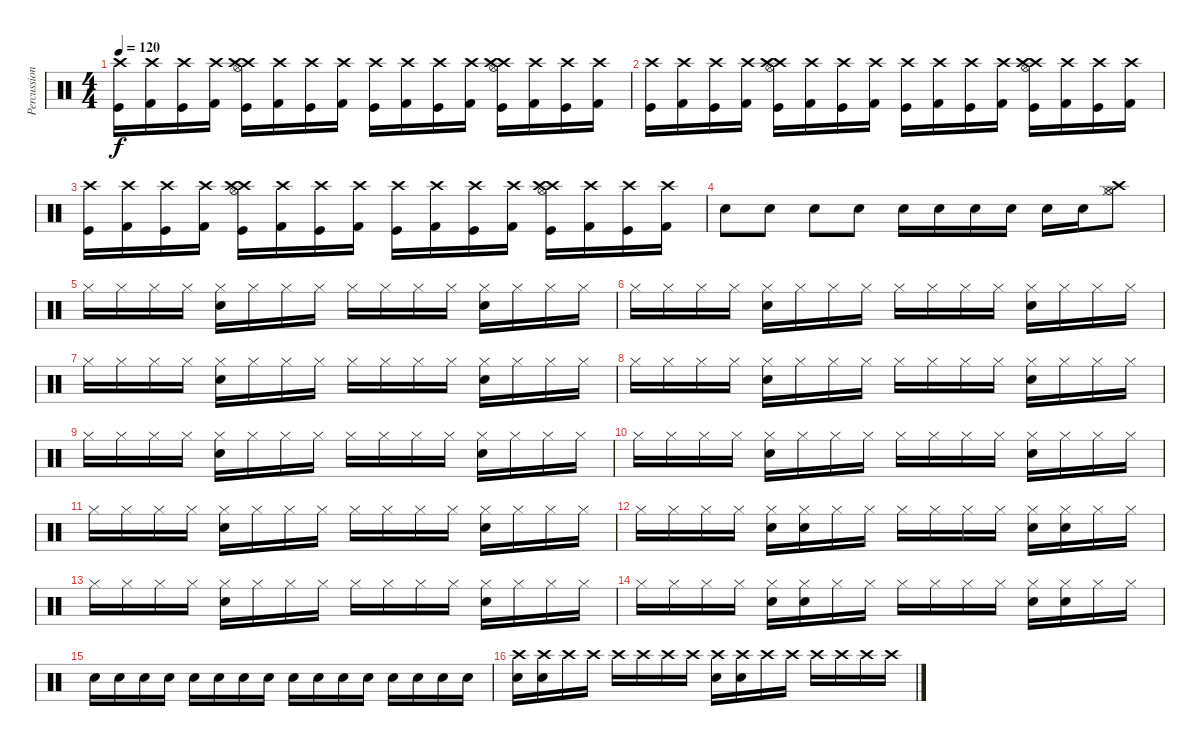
\track ("Percussion" "Percussion") {instrument percussion}
\staff {score}
\articulation defaults
\ts (4 4)
\tempo 120
\clef neutral
\ks c
("Kick (hit)" "Crash high (hit)").16{dy f} ("Kick (hit) 2" "Crash high (hit)").16 ("Kick (hit)" "Crash high (hit)").16 ("Kick (hit) 2" "Crash high (hit)").16 ("Kick (hit)" "Crash high (hit)" "Crash high (hit)" "Hi-Hat (open)").16 ("Kick (hit) 2" "Crash high (hit)").16 ("Kick (hit)" "Crash high (hit)").16 ("Kick (hit) 2" "Crash high (hit)").16 ("Kick (hit)" "Crash high (hit)").16 ("Kick (hit) 2" "Crash high (hit)").16 ("Kick (hit)" "Crash high (hit)").16 ("Kick (hit) 2" "Crash high (hit)").16 ("Kick (hit)" "Crash high (hit)" "Crash high (hit)" "Hi-Hat (open)").16 ("Kick (hit) 2" "Crash high (hit)").16 ("Kick (hit)" "Crash high (hit)").16 ("Kick (hit) 2" "Crash high (hit)").16 |
("Kick (hit)" "Crash high (hit)").16 ("Kick (hit) 2" "Crash high (hit)").16 ("Kick (hit)" "Crash high (hit)").16 ("Kick (hit) 2" "Crash high (hit)").16 ("Kick (hit)" "Crash high (hit)" "Crash high (hit)" "Hi-Hat (open)").16 ("Kick (hit) 2" "Crash high (hit)").16 ("Kick (hit)" "Crash high (hit)").16 ("Kick (hit) 2" "Crash high (hit)").16 ("Kick (hit)" "Crash high (hit)").16 ("Kick (hit) 2" "Crash high (hit)").16 ("Kick (hit)" "Crash high (hit)").16 ("Kick (hit) 2" "Crash high (hit)").16 ("Kick (hit)" "Crash high (hit)" "Crash high (hit)" "Hi-Hat (open)").16 ("Kick (hit) 2" "Crash high (hit)").16 ("Kick (hit)" "Crash high (hit)").16 ("Kick (hit) 2" "Crash high (hit)").16 |
("Kick (hit)" "Crash high (hit)").16 ("Kick (hit) 2" "Crash high (hit)").16 ("Kick (hit)" "Crash high (hit)").16 ("Kick (hit) 2" "Crash high (hit)").16 ("Kick (hit)" "Crash high (hit)" "Crash high (hit)" "Hi-Hat (open)").16 ("Kick (hit) 2" "Crash high (hit)").16 ("Kick (hit)" "Crash high (hit)").16 ("Kick (hit) 2" "Crash high (hit)").16 ("Kick (hit)" "Crash high (hit)").16 ("Kick (hit) 2" "Crash high (hit)").16 ("Kick (hit)" "Crash high (hit)").16 ("Kick (hit) 2" "Crash high (hit)").16 ("Kick (hit)" "Crash high (hit)" "Crash high (hit)" "Hi-Hat (open)").16 ("Kick (hit) 2" "Crash high (hit)").16 ("Kick (hit)" "Crash high (hit)").16 ("Kick (hit) 2" "Crash high (hit)").16 |
"Electric Snare (hit)".8 "Electric Snare (hit)".8 "Electric Snare (hit)".8 "Electric Snare (hit)".8 "Electric Snare (hit)".16 "Electric Snare (hit)".16 "Electric Snare (hit)".16 "Electric Snare (hit)".16 "Electric Snare (hit)".16 "Electric Snare (hit)".16 ("Crash high (hit)" "Hi-Hat (open)" "Hi-Hat (closed)").8 |
"Hi-Hat (closed)".16 "Hi-Hat (closed)".16 "Hi-Hat (closed)".16 "Hi-Hat (closed)".16 ("Hi-Hat (closed)" "Electric Snare (hit)").16 "Hi-Hat (closed)".16 "Hi-Hat (closed)".16 "Hi-Hat (closed)".16 "Hi-Hat (closed)".16 "Hi-Hat (closed)".16 "Hi-Hat (closed)".16 "Hi-Hat (closed)".16 ("Hi-Hat (closed)" "Electric Snare (hit)").16 "Hi-Hat (closed)".16 "Hi-Hat (closed)".16 "Hi-Hat (closed)".16 |
"Hi-Hat (closed)".16 "Hi-Hat (closed)".16 "Hi-Hat (closed)".16 "Hi-Hat (closed)".16 ("Hi-Hat (closed)" "Electric Snare (hit)").16 "Hi-Hat (closed)".16 "Hi-Hat (closed)".16 "Hi-Hat (closed)".16 "Hi-Hat (closed)".16 "Hi-Hat (closed)".16 "Hi-Hat (closed)".16 "Hi-Hat (closed)".16 ("Hi-Hat (closed)" "Electric Snare (hit)").16 "Hi-Hat (closed)".16 "Hi-Hat (closed)".16 "Hi-Hat (closed)".16 |
"Hi-Hat (closed)".16 "Hi-Hat (closed)".16 "Hi-Hat (closed)".16 "Hi-Hat (closed)".16 ("Hi-Hat (closed)" "Electric Snare (hit)").16 "Hi-Hat (closed)".16 "Hi-Hat (closed)".16 "Hi-Hat (closed)".16 "Hi-Hat (closed)".16 "Hi-Hat (closed)".16 "Hi-Hat (closed)".16 "Hi-Hat (closed)".16 ("Hi-Hat (closed)" "Electric Snare (hit)").16 "Hi-Hat (closed)".16 "Hi-Hat (closed)".16 "Hi-Hat (closed)".16 |
"Hi-Hat (closed)".16 "Hi-Hat (closed)".16 "Hi-Hat (closed)".16 "Hi-Hat (closed)".16 ("Hi-Hat (closed)" "Electric Snare (hit)").16 "Hi-Hat (closed)".16 "Hi-Hat (closed)".16 "Hi-Hat (closed)".16 "Hi-Hat (closed)".16 "Hi-Hat (closed)".16 "Hi-Hat (closed)".16 "Hi-Hat (closed)".16 ("Hi-Hat (closed)" "Electric Snare (hit)").16 "Hi-Hat (closed)".16 "Hi-Hat (closed)".16 "Hi-Hat (closed)".16 |
"Hi-Hat (closed)".16 "Hi-Hat (closed)".16 "Hi-Hat (closed)".16 "Hi-Hat (closed)".16 ("Hi-Hat (closed)" "Electric Snare (hit)").16 "Hi-Hat (closed)".16 "Hi-Hat (closed)".16 "Hi-Hat (closed)".16 "Hi-Hat (closed)".16 "Hi-Hat (closed)".16 "Hi-Hat (closed)".16 "Hi-Hat (closed)".16 ("Hi-Hat (closed)" "Electric Snare (hit)").16 "Hi-Hat (closed)".16 "Hi-Hat (closed)".16 "Hi-Hat (closed)".16 |
"Hi-Hat (closed)".16 "Hi-Hat (closed)".16 "Hi-Hat (closed)".16 "Hi-Hat (closed)".16 ("Hi-Hat (closed)" "Electric Snare (hit)").16 "Hi-Hat (closed)".16 "Hi-Hat (closed)".16 "Hi-Hat (closed)".16 "Hi-Hat (closed)".16 "Hi-Hat (closed)".16 "Hi-Hat (closed)".16 "Hi-Hat (closed)".16 ("Hi-Hat (closed)" "Electric Snare (hit)").16 "Hi-Hat (closed)".16 "Hi-Hat (closed)".16 "Hi-Hat (closed)".16 |
"Hi-Hat (closed)".16 "Hi-Hat (closed)".16 "Hi-Hat (closed)".16 "Hi-Hat (closed)".16 ("Hi-Hat (closed)" "Electric Snare (hit)").16 "Hi-Hat (closed)".16 "Hi-Hat (closed)".16 "Hi-Hat (closed)".16 "Hi-Hat (closed)".16 "Hi-Hat (closed)".16 "Hi-Hat (closed)".16 "Hi-Hat (closed)".16 ("Hi-Hat (closed)" "Electric Snare (hit)").16 "Hi-Hat (closed)".16 "Hi-Hat (closed)".16 "Hi-Hat (closed)".16 |
"Hi-Hat (closed)".16 "Hi-Hat (closed)".16 "Hi-Hat (closed)".16 "Hi-Hat (closed)".16 ("Hi-Hat (closed)" "Electric Snare (hit)").16 ("Hi-Hat (closed)" "Electric Snare (hit)").16 "Hi-Hat (closed)".16 "Hi-Hat (closed)".16 "Hi-Hat (closed)".16 "Hi-Hat (closed)".16 "Hi-Hat (closed)".16 "Hi-Hat (closed)".16 ("Hi-Hat (closed)" "Electric Snare (hit)").16 ("Hi-Hat (closed)" "Electric Snare (hit)").16 "Hi-Hat (closed)".16 "Hi-Hat (closed)".16 |
"Hi-Hat (closed)".16 "Hi-Hat (closed)".16 "Hi-Hat (closed)".16 "Hi-Hat (closed)".16 ("Hi-Hat (closed)" "Electric Snare (hit)").16 "Hi-Hat (closed)".16 "Hi-Hat (closed)".16 "Hi-Hat (closed)".16 "Hi-Hat (closed)".16 "Hi-Hat (closed)".16 "Hi-Hat (closed)".16 "Hi-Hat (closed)".16 ("Hi-Hat (closed)" "Electric Snare (hit)").16 "Hi-Hat (closed)".16 "Hi-Hat (closed)".16 "Hi-Hat (closed)".16 |
"Hi-Hat (closed)".16 "Hi-Hat (closed)".16 "Hi-Hat (closed)".16 "Hi-Hat (closed)".16 ("Hi-Hat (closed)" "Electric Snare (hit)").16 ("Hi-Hat (closed)" "Electric Snare (hit)").16 "Hi-Hat (closed)".16 "Hi-Hat (closed)".16 "Hi-Hat (closed)".16 "Hi-Hat (closed)".16 "Hi-Hat (closed)".16 "Hi-Hat (closed)".16 ("Hi-Hat (closed)" "Electric Snare (hit)").16 ("Hi-Hat (closed)" "Electric Snare (hit)").16 "Hi-Hat (closed)".16 "Hi-Hat (closed)".16 |
"Electric Snare (hit)".16 "Electric Snare (hit)".16 "Electric Snare (hit)".16 "Electric Snare (hit)".16 "Electric Snare (hit)".16 "Electric Snare (hit)".16 "Electric Snare (hit)".16 "Electric Snare (hit)".16 "Electric Snare (hit)".16 "Electric Snare (hit)".16 "Electric Snare (hit)".16 "Electric Snare (hit)".16 "Electric Snare (hit)".16 "Electric Snare (hit)".16 "Electric Snare (hit)".16 "Electric Snare (hit)".16 |
("Crash high (hit)" "Electric Snare (hit)").16 ("Crash high (hit)" "Electric Snare (hit)").16 "Crash high (hit)".16 "Crash high (hit)".16 "Crash high (hit)".16 "Crash high (hit)".16 "Crash high (hit)".16 "Crash high (hit)".16 ("Crash high (hit)" "Electric Snare (hit)").16 ("Crash high (hit)" "Electric Snare (hit)").16 "Crash high (hit)".16 "Crash high (hit)".16 "Crash high (hit)".16 "Crash high (hit)".16 "Crash high (hit)".16 "Crash high (hit)".16
